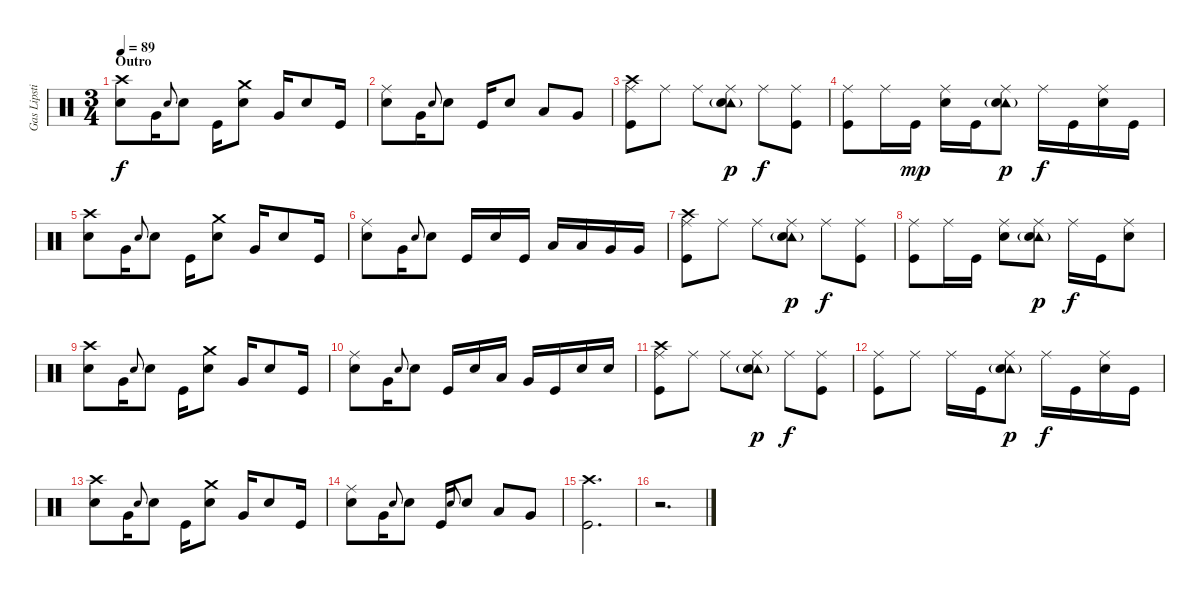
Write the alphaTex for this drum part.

\track ("Gas Lipstick (Drums)" "Gas Lipsti") {instrument percussion}
\staff {score}
\articulation defaults
\ts (3 4)
\section ("" "Outro")
\tempo 89
\clef neutral
\ks c
("Crash high (hit)" "Snare (hit) 2").8{dy f} "Very Low Tom (hit)".16 "Snare (hit) 2".8{gr onbeat} "Snare (hit) 2".8 "Kick (hit)".16 ("Crash medium (hit)" "Snare (hit) 2").8 "Very Low Tom (hit)".16 "Snare (hit) 2".8 "Kick (hit)".16 |
("Ride (middle)" "Snare (hit) 2").8 "Very Low Tom (hit)".16 "Snare (hit) 2".8{gr onbeat} "Snare (hit) 2".8 "Kick (hit)".16 "Snare (hit) 2".8 "Low Tom (hit)".8 "Very Low Tom (hit)".8 |
("Crash high (hit)" "Ride (middle)" "Kick (hit)").8 "Ride (middle)".8 "Ride (middle)".8 ("Tambourine (hit)"{g} "Ride (middle)" "Snare (hit) 2").8{dy p} "Ride (middle)".8{dy f} ("Ride (middle)" "Kick (hit)").8 |
("Ride (middle)" "Kick (hit)").8 "Ride (middle)".16 "Kick (hit)".16{dy mp} ("Ride (middle)" "Snare (hit) 2").16 "Kick (hit)".16 ("Tambourine (hit)"{g} "Ride (middle)" "Snare (hit) 2").8{dy p} "Ride (middle)".16{dy f} "Kick (hit)".16 ("Ride (middle)" "Snare (hit) 2").16 "Kick (hit)".16 |
("Crash high (hit)" "Snare (hit) 2").8 "Very Low Tom (hit)".16 "Snare (hit) 2".8{gr onbeat} "Snare (hit) 2".8 "Kick (hit)".16 ("Crash medium (hit)" "Snare (hit) 2").8 "Very Low Tom (hit)".16 "Snare (hit) 2".8 "Kick (hit)".16 |
("Ride (middle)" "Snare (hit) 2").8 "Very Low Tom (hit)".16 "Snare (hit) 2".8{gr onbeat} "Snare (hit) 2".8 "Kick (hit)".16 "Snare (hit) 2".16 "Kick (hit)".16 "Low Tom (hit)".16 "Low Tom (hit)".16 "Very Low Tom (hit)".16 "Very Low Tom (hit)".16 |
("Crash high (hit)" "Ride (middle)" "Kick (hit)").8 "Ride (middle)".8 "Ride (middle)".8 ("Tambourine (hit)"{g} "Ride (middle)" "Snare (hit) 2").8{dy p} "Ride (middle)".8{dy f} ("Ride (middle)" "Kick (hit)").8 |
("Ride (middle)" "Kick (hit)").8 "Ride (middle)".16 "Kick (hit)".16 ("Ride (middle)" "Snare (hit) 2").8 ("Tambourine (hit)"{g} "Ride (middle)" "Snare (hit) 2").8{dy p} "Ride (middle)".16{dy f} "Kick (hit)".16 ("Ride (middle)" "Snare (hit) 2").8 |
("Crash high (hit)" "Snare (hit) 2").8 "Very Low Tom (hit)".16 "Snare (hit) 2".8{gr onbeat} "Snare (hit) 2".8 "Kick (hit)".16 ("Crash medium (hit)" "Snare (hit) 2").8 "Very Low Tom (hit)".16 "Snare (hit) 2".8 "Kick (hit)".16 |
("Ride (middle)" "Snare (hit) 2").8 "Very Low Tom (hit)".16 "Snare (hit) 2".8{gr onbeat} "Snare (hit) 2".8 "Kick (hit)".16 "Snare (hit) 2".16 "Low Tom (hit)".16 "Very Low Tom (hit)".16 "Kick (hit)".16 "Snare (hit) 2".16 "Snare (hit) 2".16 |
("Crash high (hit)" "Ride (middle)" "Kick (hit)").8 "Ride (middle)".8 "Ride (middle)".8 ("Tambourine (hit)"{g} "Ride (middle)" "Snare (hit) 2").8{dy p} "Ride (middle)".8{dy f} ("Ride (middle)" "Kick (hit)").8 |
("Ride (middle)" "Kick (hit)").8 "Ride (middle)".8 "Ride (middle)".16 "Kick (hit)".16 ("Tambourine (hit)"{g} "Ride (middle)" "Snare (hit) 2").8{dy p} "Ride (middle)".16{dy f} "Kick (hit)".16 ("Ride (middle)" "Snare (hit) 2").16 "Kick (hit)".16 |
("Crash high (hit)" "Snare (hit) 2").8 "Very Low Tom (hit)".16 "Snare (hit) 2".8{gr onbeat} "Snare (hit) 2".8 "Kick (hit)".16 ("Crash medium (hit)" "Snare (hit) 2").8 "Very Low Tom (hit)".16 "Snare (hit) 2".8 "Kick (hit)".16 |
("Ride (middle)" "Snare (hit) 2").8 "Very Low Tom (hit)".16 "Snare (hit) 2".8{gr onbeat} "Snare (hit) 2".8 "Kick (hit)".16 "Snare (hit) 2".8{gr onbeat} "Snare (hit) 2".8 "Low Tom (hit)".8 "Very Low Tom (hit)".8 |
("Crash high (hit)" "Kick (hit)").2{d} |
r.2{d}
